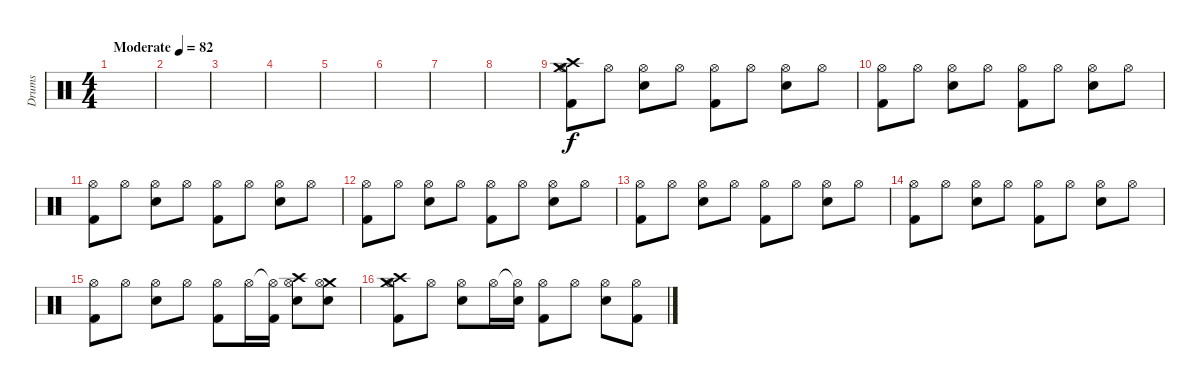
\track ("Drums" "Drums") {instrument percussion}
\staff {score}
\articulation defaults
\ts (4 4)
\tempo (82 "Moderate")
\clef neutral
\ks c
|
|
|
|
|
|
|
|
("Crash medium (hit)" "Crash high (hit)" "Hi-Hat (open)" "Kick (hit) 2").8 "Hi-Hat (open)".8 ("Hi-Hat (open)" "Snare (hit) 2").8 "Hi-Hat (open)".8 ("Hi-Hat (open)" "Kick (hit) 2").8 "Hi-Hat (open)".8 ("Hi-Hat (open)" "Snare (hit) 2").8 "Hi-Hat (open)".8 |
("Hi-Hat (open)" "Kick (hit) 2").8 "Hi-Hat (open)".8 ("Hi-Hat (open)" "Snare (hit) 2").8 "Hi-Hat (open)".8 ("Hi-Hat (open)" "Kick (hit) 2").8 "Hi-Hat (open)".8 ("Hi-Hat (open)" "Snare (hit) 2").8 "Hi-Hat (open)".8 |
("Hi-Hat (open)" "Kick (hit) 2").8 "Hi-Hat (open)".8 ("Hi-Hat (open)" "Snare (hit) 2").8 "Hi-Hat (open)".8 ("Hi-Hat (open)" "Kick (hit) 2").8 "Hi-Hat (open)".8 ("Hi-Hat (open)" "Snare (hit) 2").8 "Hi-Hat (open)".8 |
("Hi-Hat (open)" "Kick (hit) 2").8 "Hi-Hat (open)".8 ("Hi-Hat (open)" "Snare (hit) 2").8 "Hi-Hat (open)".8 ("Hi-Hat (open)" "Kick (hit) 2").8 "Hi-Hat (open)".8 ("Hi-Hat (open)" "Snare (hit) 2").8 "Hi-Hat (open)".8 |
("Hi-Hat (open)" "Kick (hit) 2").8 "Hi-Hat (open)".8 ("Hi-Hat (open)" "Snare (hit) 2").8 "Hi-Hat (open)".8 ("Hi-Hat (open)" "Kick (hit) 2").8 "Hi-Hat (open)".8 ("Hi-Hat (open)" "Snare (hit) 2").8 "Hi-Hat (open)".8 |
("Hi-Hat (open)" "Kick (hit) 2").8 "Hi-Hat (open)".8 ("Hi-Hat (open)" "Snare (hit) 2").8 "Hi-Hat (open)".8 ("Hi-Hat (open)" "Kick (hit) 2").8 "Hi-Hat (open)".8 ("Hi-Hat (open)" "Snare (hit) 2").8 "Hi-Hat (open)".8 |
("Hi-Hat (open)" "Kick (hit) 2").8 "Hi-Hat (open)".8 ("Hi-Hat (open)" "Snare (hit) 2").8 "Hi-Hat (open)".8 ("Hi-Hat (open)" "Kick (hit) 2").8 "Hi-Hat (open)".16 ("Hi-Hat (open)"{t} "Kick (hit) 2").16 ("Crash high (hit)" "Hi-Hat (open)" "Snare (hit) 2").8 ("Crash medium (hit)" "Hi-Hat (open)" "Snare (hit) 2").8 |
("Crash medium (hit)" "Crash high (hit)" "Hi-Hat (open)" "Kick (hit) 2").8 "Hi-Hat (open)".8 ("Hi-Hat (open)" "Snare (hit) 2").8 "Hi-Hat (open)".16 ("Hi-Hat (open)"{t} "Snare (hit) 2").16 ("Hi-Hat (open)" "Kick (hit) 2").8 "Hi-Hat (open)".8 ("Hi-Hat (open)" "Snare (hit) 2").8 ("Hi-Hat (open)" "Kick (hit) 2").8
